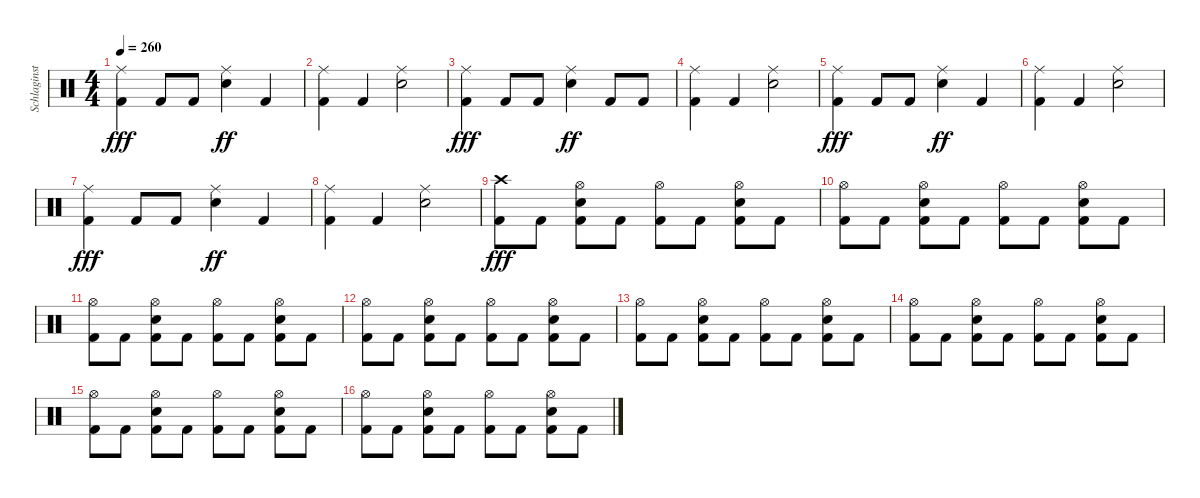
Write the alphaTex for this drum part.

\track ("Schlaginstrumente - Auswahl" "Schlaginst") {instrument percussion}
\staff {score}
\articulation defaults
\ts (4 4)
\tempo 260
\clef neutral
\ks c
("Ride (middle)" "Kick (hit) 2").4{dy fff} "Kick (hit) 2".8 "Kick (hit) 2".8 ("Ride (middle)" "Snare (hit) 2").4{dy ff} "Kick (hit) 2".4 |
("Ride (middle)" "Kick (hit) 2").4 "Kick (hit) 2".4 ("Ride (middle)" "Snare (hit) 2").2 |
("Ride (middle)" "Kick (hit) 2").4{dy fff} "Kick (hit) 2".8 "Kick (hit) 2".8 ("Ride (middle)" "Snare (hit) 2").4{dy ff} "Kick (hit) 2".8 "Kick (hit) 2".8 |
("Ride (middle)" "Kick (hit) 2").4 "Kick (hit) 2".4 ("Ride (middle)" "Snare (hit) 2").2 |
("Ride (middle)" "Kick (hit) 2").4{dy fff} "Kick (hit) 2".8 "Kick (hit) 2".8 ("Ride (middle)" "Snare (hit) 2").4{dy ff} "Kick (hit) 2".4 |
("Ride (middle)" "Kick (hit) 2").4 "Kick (hit) 2".4 ("Ride (middle)" "Snare (hit) 2").2 |
("Ride (middle)" "Kick (hit) 2").4{dy fff} "Kick (hit) 2".8 "Kick (hit) 2".8 ("Ride (middle)" "Snare (hit) 2").4{dy ff} "Kick (hit) 2".4 |
("Ride (middle)" "Kick (hit) 2").4 "Kick (hit) 2".4 ("Ride (middle)" "Snare (hit) 2").2 |
("Crash high (hit)" "Kick (hit) 2").8{dy fff} "Kick (hit) 2".8 ("Hi-Hat (open)" "Snare (hit) 2" "Kick (hit) 2").8 "Kick (hit) 2".8 ("Hi-Hat (open)" "Kick (hit) 2").8 "Kick (hit) 2".8 ("Hi-Hat (open)" "Snare (hit) 2" "Kick (hit) 2").8 "Kick (hit) 2".8 |
("Hi-Hat (open)" "Kick (hit) 2").8 "Kick (hit) 2".8 ("Hi-Hat (open)" "Snare (hit) 2" "Kick (hit) 2").8 "Kick (hit) 2".8 ("Hi-Hat (open)" "Kick (hit) 2").8 "Kick (hit) 2".8 ("Hi-Hat (open)" "Snare (hit) 2" "Kick (hit) 2").8 "Kick (hit) 2".8 |
("Hi-Hat (open)" "Kick (hit) 2").8 "Kick (hit) 2".8 ("Hi-Hat (open)" "Snare (hit) 2" "Kick (hit) 2").8 "Kick (hit) 2".8 ("Hi-Hat (open)" "Kick (hit) 2").8 "Kick (hit) 2".8 ("Hi-Hat (open)" "Snare (hit) 2" "Kick (hit) 2").8 "Kick (hit) 2".8 |
("Hi-Hat (open)" "Kick (hit) 2").8 "Kick (hit) 2".8 ("Hi-Hat (open)" "Snare (hit) 2" "Kick (hit) 2").8 "Kick (hit) 2".8 ("Hi-Hat (open)" "Kick (hit) 2").8 "Kick (hit) 2".8 ("Hi-Hat (open)" "Snare (hit) 2" "Kick (hit) 2").8 "Kick (hit) 2".8 |
("Hi-Hat (open)" "Kick (hit) 2").8 "Kick (hit) 2".8 ("Hi-Hat (open)" "Snare (hit) 2" "Kick (hit) 2").8 "Kick (hit) 2".8 ("Hi-Hat (open)" "Kick (hit) 2").8 "Kick (hit) 2".8 ("Hi-Hat (open)" "Snare (hit) 2" "Kick (hit) 2").8 "Kick (hit) 2".8 |
("Hi-Hat (open)" "Kick (hit) 2").8 "Kick (hit) 2".8 ("Hi-Hat (open)" "Snare (hit) 2" "Kick (hit) 2").8 "Kick (hit) 2".8 ("Hi-Hat (open)" "Kick (hit) 2").8 "Kick (hit) 2".8 ("Hi-Hat (open)" "Snare (hit) 2" "Kick (hit) 2").8 "Kick (hit) 2".8 |
("Hi-Hat (open)" "Kick (hit) 2").8 "Kick (hit) 2".8 ("Hi-Hat (open)" "Snare (hit) 2" "Kick (hit) 2").8 "Kick (hit) 2".8 ("Hi-Hat (open)" "Kick (hit) 2").8 "Kick (hit) 2".8 ("Hi-Hat (open)" "Snare (hit) 2" "Kick (hit) 2").8 "Kick (hit) 2".8 |
("Hi-Hat (open)" "Kick (hit) 2").8 "Kick (hit) 2".8 ("Hi-Hat (open)" "Snare (hit) 2" "Kick (hit) 2").8 "Kick (hit) 2".8 ("Hi-Hat (open)" "Kick (hit) 2").8 "Kick (hit) 2".8 ("Hi-Hat (open)" "Snare (hit) 2" "Kick (hit) 2").8 "Kick (hit) 2".8
